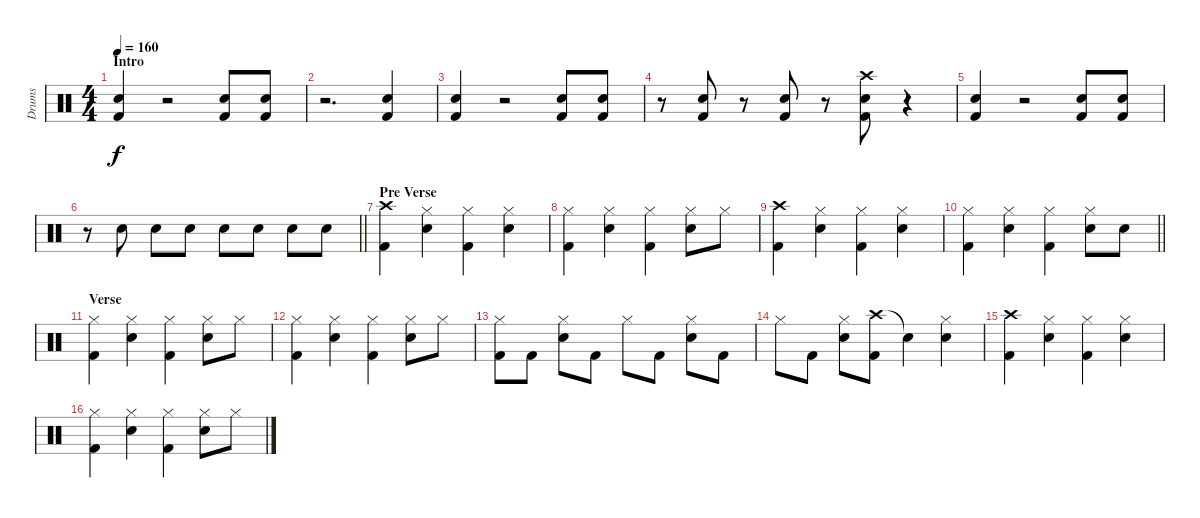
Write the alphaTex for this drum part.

\track ("Drums" "Drums") {instrument percussion}
\staff {score}
\articulation defaults
\ts (4 4)
\section ("" "Intro")
\tempo 160
\clef neutral
\ks c
("Snare (hit) 2" "Kick (hit) 2").4{dy f} r.2 ("Snare (hit) 2" "Kick (hit) 2").8 ("Snare (hit) 2" "Kick (hit) 2").8 |
r.2{d} ("Snare (hit) 2" "Kick (hit) 2").4 |
("Snare (hit) 2" "Kick (hit) 2").4 r.2 ("Snare (hit) 2" "Kick (hit) 2").8 ("Snare (hit) 2" "Kick (hit) 2").8 |
r.8 ("Snare (hit) 2" "Kick (hit) 2").8 r.8 ("Snare (hit) 2" "Kick (hit) 2").8 r.8 ("Crash high (hit)" "Snare (hit) 2" "Kick (hit) 2").8 r.4 |
("Snare (hit) 2" "Kick (hit) 2").4 r.2 ("Snare (hit) 2" "Kick (hit) 2").8 ("Snare (hit) 2" "Kick (hit) 2").8 |
\barLineRight lightlight
r.8 "Snare (hit) 2".8 "Snare (hit) 2".8 "Snare (hit) 2".8 "Snare (hit) 2".8 "Snare (hit) 2".8 "Snare (hit) 2".8 "Snare (hit) 2".8 |
\section ("" "Pre Verse")
("Crash high (hit)" "Kick (hit) 2").4 ("Hi-Hat (closed)" "Snare (hit) 2").4 ("Hi-Hat (closed)" "Kick (hit) 2").4 ("Hi-Hat (closed)" "Snare (hit) 2").4 |
("Hi-Hat (closed)" "Kick (hit) 2").4 ("Hi-Hat (closed)" "Snare (hit) 2").4 ("Hi-Hat (closed)" "Kick (hit) 2").4 ("Hi-Hat (closed)" "Snare (hit) 2").8 "Hi-Hat (closed)".8 |
("Crash high (hit)" "Kick (hit) 2").4 ("Hi-Hat (closed)" "Snare (hit) 2").4 ("Hi-Hat (closed)" "Kick (hit) 2").4 ("Hi-Hat (closed)" "Snare (hit) 2").4 |
\barLineRight lightlight
("Hi-Hat (closed)" "Kick (hit) 2").4 ("Hi-Hat (closed)" "Snare (hit) 2").4 ("Hi-Hat (closed)" "Kick (hit) 2").4 ("Hi-Hat (closed)" "Snare (hit) 2").8 "Snare (hit) 2".8 |
\section ("" "Verse")
("Hi-Hat (closed)" "Kick (hit) 2").4 ("Hi-Hat (closed)" "Snare (hit) 2").4 ("Hi-Hat (closed)" "Kick (hit) 2").4 ("Hi-Hat (closed)" "Snare (hit) 2").8 "Hi-Hat (closed)".8 |
("Hi-Hat (closed)" "Kick (hit) 2").4 ("Hi-Hat (closed)" "Snare (hit) 2").4 ("Hi-Hat (closed)" "Kick (hit) 2").4 ("Hi-Hat (closed)" "Snare (hit) 2").8 "Hi-Hat (closed)".8 |
("Hi-Hat (closed)" "Kick (hit) 2").8 "Kick (hit) 2".8 ("Hi-Hat (closed)" "Snare (hit) 2").8 "Kick (hit) 2".8 "Hi-Hat (closed)".8 "Kick (hit) 2".8 ("Hi-Hat (closed)" "Snare (hit) 2").8 "Kick (hit) 2".8 |
"Hi-Hat (closed)".8 "Kick (hit) 2".8 ("Hi-Hat (closed)" "Snare (hit) 2").8 ("Crash high (hit)" "Kick (hit) 2").8 "Snare (hit)"{t}.4 ("Hi-Hat (closed)" "Snare (hit) 2").4 |
("Crash high (hit)" "Kick (hit) 2").4 ("Hi-Hat (closed)" "Snare (hit) 2").4 ("Hi-Hat (closed)" "Kick (hit) 2").4 ("Hi-Hat (closed)" "Snare (hit) 2").4 |
("Hi-Hat (closed)" "Kick (hit) 2").4 ("Hi-Hat (closed)" "Snare (hit) 2").4 ("Hi-Hat (closed)" "Kick (hit) 2").4 ("Hi-Hat (closed)" "Snare (hit) 2").8 "Hi-Hat (closed)".8
